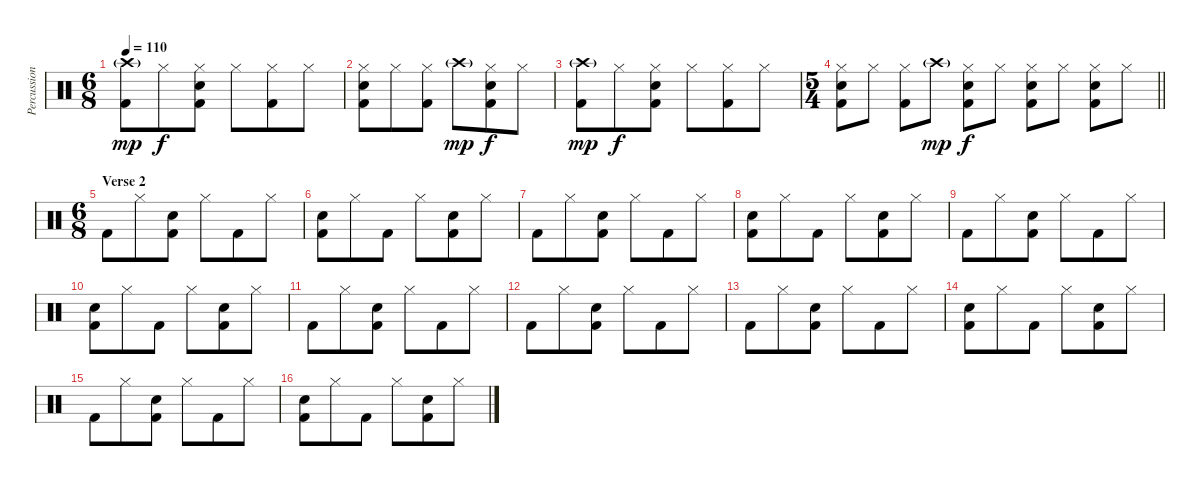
\track ("Percussion" "Percussion") {instrument percussion}
\staff {score}
\articulation defaults
\ts (6 8)
\tempo 110
\clef neutral
\ks c
("Crash high (hit)"{g} "Kick (hit) 2").8{dy mp} "Hi-Hat (closed)".8{dy f} ("Hi-Hat (closed)" "Snare (hit) 2" "Kick (hit) 2").8 "Hi-Hat (closed)".8 ("Hi-Hat (closed)" "Kick (hit) 2").8 "Hi-Hat (closed)".8 |
("Hi-Hat (closed)" "Snare (hit) 2" "Kick (hit) 2").8 "Hi-Hat (closed)".8 ("Hi-Hat (closed)" "Kick (hit) 2").8 "Crash high (hit)"{g}.8{dy mp} ("Hi-Hat (closed)" "Snare (hit) 2" "Kick (hit) 2").8{dy f} "Hi-Hat (closed)".8 |
("Crash high (hit)"{g} "Kick (hit) 2").8{dy mp} "Hi-Hat (closed)".8{dy f} ("Hi-Hat (closed)" "Snare (hit) 2" "Kick (hit) 2").8 "Hi-Hat (closed)".8 ("Hi-Hat (closed)" "Kick (hit) 2").8 "Hi-Hat (closed)".8 |
\ts (5 4)
\barLineRight lightlight
("Hi-Hat (closed)" "Snare (hit) 2" "Kick (hit) 2").8 "Hi-Hat (closed)".8 ("Hi-Hat (closed)" "Kick (hit) 2").8 "Crash high (hit)"{g}.8{dy mp} ("Hi-Hat (closed)" "Snare (hit) 2" "Kick (hit) 2").8{dy f} "Hi-Hat (closed)".8 ("Hi-Hat (closed)" "Snare (hit) 2" "Kick (hit) 2").8 "Hi-Hat (closed)".8 ("Hi-Hat (closed)" "Snare (hit) 2" "Kick (hit) 2").8 "Hi-Hat (closed)".8 |
\ts (6 8)
\section ("" "Verse 2")
"Kick (hit) 2".8 "Hi-Hat (closed)".8 ("Snare (hit) 2" "Kick (hit) 2").8 "Hi-Hat (closed)".8 "Kick (hit) 2".8 "Hi-Hat (closed)".8 |
("Snare (hit) 2" "Kick (hit) 2").8 "Hi-Hat (closed)".8 "Kick (hit) 2".8 "Hi-Hat (closed)".8 ("Snare (hit) 2" "Kick (hit) 2").8 "Hi-Hat (closed)".8 |
"Kick (hit) 2".8 "Hi-Hat (closed)".8 ("Snare (hit) 2" "Kick (hit) 2").8 "Hi-Hat (closed)".8 "Kick (hit) 2".8 "Hi-Hat (closed)".8 |
("Snare (hit) 2" "Kick (hit) 2").8 "Hi-Hat (closed)".8 "Kick (hit) 2".8 "Hi-Hat (closed)".8 ("Snare (hit) 2" "Kick (hit) 2").8 "Hi-Hat (closed)".8 |
"Kick (hit) 2".8 "Hi-Hat (closed)".8 ("Snare (hit) 2" "Kick (hit) 2").8 "Hi-Hat (closed)".8 "Kick (hit) 2".8 "Hi-Hat (closed)".8 |
("Snare (hit) 2" "Kick (hit) 2").8 "Hi-Hat (closed)".8 "Kick (hit) 2".8 "Hi-Hat (closed)".8 ("Snare (hit) 2" "Kick (hit) 2").8 "Hi-Hat (closed)".8 |
"Kick (hit) 2".8 "Hi-Hat (closed)".8 ("Snare (hit) 2" "Kick (hit) 2").8 "Hi-Hat (closed)".8 "Kick (hit) 2".8 "Hi-Hat (closed)".8 |
"Kick (hit) 2".8 "Hi-Hat (closed)".8 ("Snare (hit) 2" "Kick (hit) 2").8 "Hi-Hat (closed)".8 "Kick (hit) 2".8 "Hi-Hat (closed)".8 |
"Kick (hit) 2".8 "Hi-Hat (closed)".8 ("Snare (hit) 2" "Kick (hit) 2").8 "Hi-Hat (closed)".8 "Kick (hit) 2".8 "Hi-Hat (closed)".8 |
("Snare (hit) 2" "Kick (hit) 2").8 "Hi-Hat (closed)".8 "Kick (hit) 2".8 "Hi-Hat (closed)".8 ("Snare (hit) 2" "Kick (hit) 2").8 "Hi-Hat (closed)".8 |
"Kick (hit) 2".8 "Hi-Hat (closed)".8 ("Snare (hit) 2" "Kick (hit) 2").8 "Hi-Hat (closed)".8 "Kick (hit) 2".8 "Hi-Hat (closed)".8 |
("Snare (hit) 2" "Kick (hit) 2").8 "Hi-Hat (closed)".8 "Kick (hit) 2".8 "Hi-Hat (closed)".8 ("Snare (hit) 2" "Kick (hit) 2").8 "Hi-Hat (closed)".8
